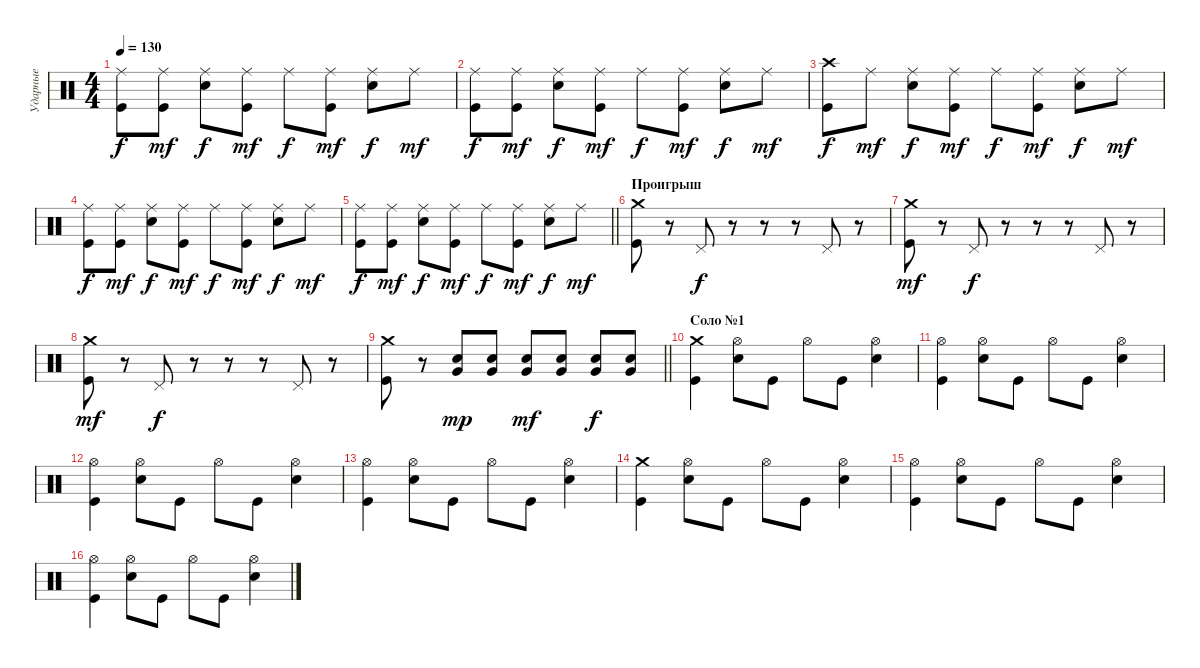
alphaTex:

\track ("Ударные" "Ударные") {instrument percussion}
\staff {score}
\articulation defaults
\ts (4 4)
\tempo 130
\clef neutral
\ks c
("Ride (middle)" "Kick (hit)").8{dy f} ("Ride (middle)" "Kick (hit)").8{dy mf} ("Ride (middle)" "Electric Snare (hit)").8{dy f} ("Ride (middle)" "Kick (hit)").8{dy mf} "Ride (middle)".8{dy f} ("Ride (middle)" "Kick (hit)").8{dy mf} ("Ride (middle)" "Electric Snare (hit)").8{dy f} "Ride (middle)".8{dy mf} |
("Ride (middle)" "Kick (hit)").8{dy f} ("Ride (middle)" "Kick (hit)").8{dy mf} ("Ride (middle)" "Electric Snare (hit)").8{dy f} ("Ride (middle)" "Kick (hit)").8{dy mf} "Ride (middle)".8{dy f} ("Ride (middle)" "Kick (hit)").8{dy mf} ("Ride (middle)" "Electric Snare (hit)").8{dy f} "Ride (middle)".8{dy mf} |
("Crash high (hit)" "Kick (hit)").8{dy f} "Ride (middle)".8{dy mf} ("Ride (middle)" "Electric Snare (hit)").8{dy f} ("Ride (middle)" "Kick (hit)").8{dy mf} "Ride (middle)".8{dy f} ("Ride (middle)" "Kick (hit)").8{dy mf} ("Ride (middle)" "Electric Snare (hit)").8{dy f} "Ride (middle)".8{dy mf} |
("Ride (middle)" "Kick (hit)").8{dy f} ("Ride (middle)" "Kick (hit)").8{dy mf} ("Ride (middle)" "Electric Snare (hit)").8{dy f} ("Ride (middle)" "Kick (hit)").8{dy mf} "Ride (middle)".8{dy f} ("Ride (middle)" "Kick (hit)").8{dy mf} ("Ride (middle)" "Electric Snare (hit)").8{dy f} "Ride (middle)".8{dy mf} |
\barLineRight lightlight
("Ride (middle)" "Kick (hit)").8{dy f} ("Ride (middle)" "Kick (hit)").8{dy mf} ("Ride (middle)" "Electric Snare (hit)").8{dy f} ("Ride (middle)" "Kick (hit)").8{dy mf} "Ride (middle)".8{dy f} ("Ride (middle)" "Kick (hit)").8{dy mf} ("Ride (middle)" "Electric Snare (hit)").8{dy f} "Ride (middle)".8{dy mf} |
\section ("" "Проигрыш")
("Crash medium (hit)" "Kick (hit)").8 r.8 "Pedal Hi-Hat (hit)".8{dy f} r.8 r.8 r.8 "Pedal Hi-Hat (hit)".8 r.8 |
("Crash medium (hit)" "Kick (hit)").8{dy mf} r.8 "Pedal Hi-Hat (hit)".8{dy f} r.8 r.8 r.8 "Pedal Hi-Hat (hit)".8 r.8 |
("Crash medium (hit)" "Kick (hit)").8{dy mf} r.8 "Pedal Hi-Hat (hit)".8{dy f} r.8 r.8 r.8 "Pedal Hi-Hat (hit)".8 r.8 |
\barLineRight lightlight
("Crash medium (hit)" "Kick (hit)").8 r.8 ("Electric Snare (hit)" "Very Low Tom (hit)").8{dy mp} ("Electric Snare (hit)" "Very Low Tom (hit)").8 ("Electric Snare (hit)" "Very Low Tom (hit)").8{dy mf} ("Electric Snare (hit)" "Very Low Tom (hit)").8 ("Electric Snare (hit)" "Very Low Tom (hit)").8{dy f} ("Electric Snare (hit)" "Very Low Tom (hit)").8 |
\section ("" "Соло №1")
("Crash medium (hit)" "Kick (hit)").4 ("Hi-Hat (open)" "Electric Snare (hit)").8 "Kick (hit)".8 "Hi-Hat (open)".8 "Kick (hit)".8 ("Hi-Hat (open)" "Electric Snare (hit)").4 |
("Hi-Hat (open)" "Kick (hit)").4 ("Hi-Hat (open)" "Electric Snare (hit)").8 "Kick (hit)".8 "Hi-Hat (open)".8 "Kick (hit)".8 ("Hi-Hat (open)" "Electric Snare (hit)").4 |
("Hi-Hat (open)" "Kick (hit)").4 ("Hi-Hat (open)" "Electric Snare (hit)").8 "Kick (hit)".8 "Hi-Hat (open)".8 "Kick (hit)".8 ("Hi-Hat (open)" "Electric Snare (hit)").4 |
("Hi-Hat (open)" "Kick (hit)").4 ("Hi-Hat (open)" "Electric Snare (hit)").8 "Kick (hit)".8 "Hi-Hat (open)".8 "Kick (hit)".8 ("Hi-Hat (open)" "Electric Snare (hit)").4 |
("Crash medium (hit)" "Kick (hit)").4 ("Hi-Hat (open)" "Electric Snare (hit)").8 "Kick (hit)".8 "Hi-Hat (open)".8 "Kick (hit)".8 ("Hi-Hat (open)" "Electric Snare (hit)").4 |
("Hi-Hat (open)" "Kick (hit)").4 ("Hi-Hat (open)" "Electric Snare (hit)").8 "Kick (hit)".8 "Hi-Hat (open)".8 "Kick (hit)".8 ("Hi-Hat (open)" "Electric Snare (hit)").4 |
("Hi-Hat (open)" "Kick (hit)").4 ("Hi-Hat (open)" "Electric Snare (hit)").8 "Kick (hit)".8 "Hi-Hat (open)".8 "Kick (hit)".8 ("Hi-Hat (open)" "Electric Snare (hit)").4
